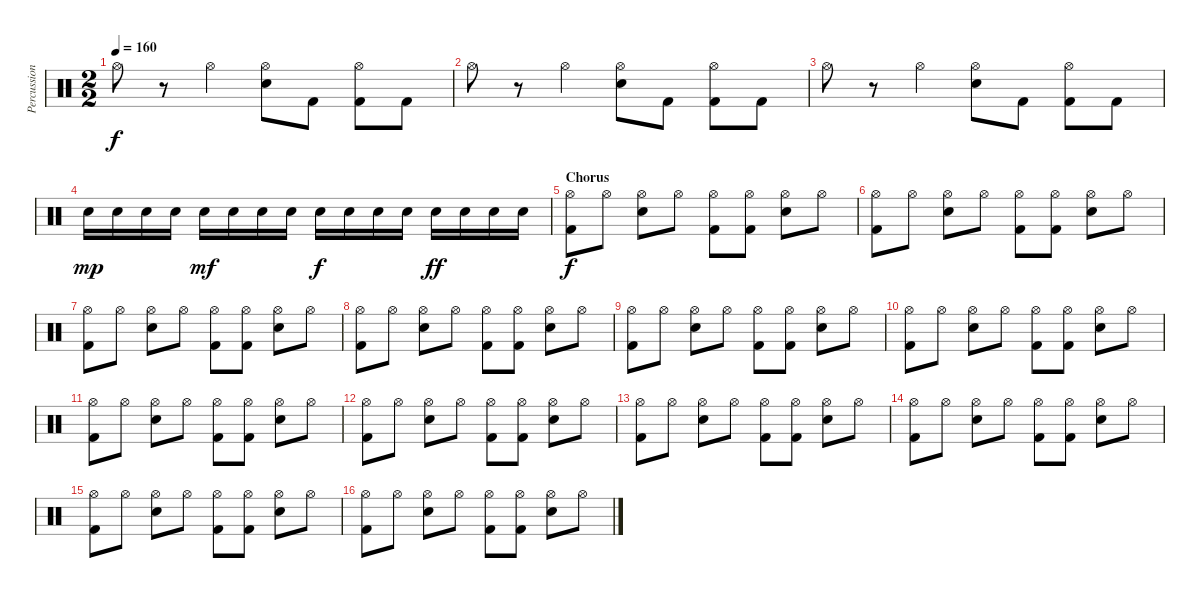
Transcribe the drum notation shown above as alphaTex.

\track ("Percussion" "Percussion") {instrument percussion}
\staff {score}
\articulation defaults
\ts (2 2)
\tempo 160
\clef neutral
\ks c "Hi-Hat (open)".8{dy f}
r.8 "Hi-Hat (open)".4 ("Hi-Hat (open)" "Snare (hit) 2").8 "Kick (hit) 2".8 ("Hi-Hat (open)" "Kick (hit) 2").8 "Kick (hit) 2".8 |
"Hi-Hat (open)".8 r.8 "Hi-Hat (open)".4 ("Hi-Hat (open)" "Snare (hit) 2").8 "Kick (hit) 2".8 ("Hi-Hat (open)" "Kick (hit) 2").8 "Kick (hit) 2".8 |
"Hi-Hat (open)".8 r.8 "Hi-Hat (open)".4 ("Hi-Hat (open)" "Snare (hit) 2").8 "Kick (hit) 2".8 ("Hi-Hat (open)" "Kick (hit) 2").8 "Kick (hit) 2".8 |
"Snare (hit) 2".16{dy mp} "Snare (hit) 2".16 "Snare (hit) 2".16 "Snare (hit) 2".16 "Snare (hit) 2".16{dy mf} "Snare (hit) 2".16 "Snare (hit) 2".16 "Snare (hit) 2".16 "Snare (hit) 2".16{dy f} "Snare (hit) 2".16 "Snare (hit) 2".16 "Snare (hit) 2".16 "Snare (hit) 2".16{dy ff} "Snare (hit) 2".16 "Snare (hit) 2".16 "Snare (hit) 2".16 |
\section ("" "Chorus")
("Hi-Hat (open)" "Kick (hit) 2").8{dy f} "Hi-Hat (open)".8 ("Hi-Hat (open)" "Snare (hit) 2").8 "Hi-Hat (open)".8 ("Hi-Hat (open)" "Kick (hit) 2").8 ("Hi-Hat (open)" "Kick (hit) 2").8 ("Hi-Hat (open)" "Snare (hit) 2").8 "Hi-Hat (open)".8 |
("Hi-Hat (open)" "Kick (hit) 2").8 "Hi-Hat (open)".8 ("Hi-Hat (open)" "Snare (hit) 2").8 "Hi-Hat (open)".8 ("Hi-Hat (open)" "Kick (hit) 2").8 ("Hi-Hat (open)" "Kick (hit) 2").8 ("Hi-Hat (open)" "Snare (hit) 2").8 "Hi-Hat (open)".8 |
("Hi-Hat (open)" "Kick (hit) 2").8 "Hi-Hat (open)".8 ("Hi-Hat (open)" "Snare (hit) 2").8 "Hi-Hat (open)".8 ("Hi-Hat (open)" "Kick (hit) 2").8 ("Hi-Hat (open)" "Kick (hit) 2").8 ("Hi-Hat (open)" "Snare (hit) 2").8 "Hi-Hat (open)".8 |
("Hi-Hat (open)" "Kick (hit) 2").8 "Hi-Hat (open)".8 ("Hi-Hat (open)" "Snare (hit) 2").8 "Hi-Hat (open)".8 ("Hi-Hat (open)" "Kick (hit) 2").8 ("Hi-Hat (open)" "Kick (hit) 2").8 ("Hi-Hat (open)" "Snare (hit) 2").8 "Hi-Hat (open)".8 |
("Hi-Hat (open)" "Kick (hit) 2").8 "Hi-Hat (open)".8 ("Hi-Hat (open)" "Snare (hit) 2").8 "Hi-Hat (open)".8 ("Hi-Hat (open)" "Kick (hit) 2").8 ("Hi-Hat (open)" "Kick (hit) 2").8 ("Hi-Hat (open)" "Snare (hit) 2").8 "Hi-Hat (open)".8 |
("Hi-Hat (open)" "Kick (hit) 2").8 "Hi-Hat (open)".8 ("Hi-Hat (open)" "Snare (hit) 2").8 "Hi-Hat (open)".8 ("Hi-Hat (open)" "Kick (hit) 2").8 ("Hi-Hat (open)" "Kick (hit) 2").8 ("Hi-Hat (open)" "Snare (hit) 2").8 "Hi-Hat (open)".8 |
("Hi-Hat (open)" "Kick (hit) 2").8 "Hi-Hat (open)".8 ("Hi-Hat (open)" "Snare (hit) 2").8 "Hi-Hat (open)".8 ("Hi-Hat (open)" "Kick (hit) 2").8 ("Hi-Hat (open)" "Kick (hit) 2").8 ("Hi-Hat (open)" "Snare (hit) 2").8 "Hi-Hat (open)".8 |
("Hi-Hat (open)" "Kick (hit) 2").8 "Hi-Hat (open)".8 ("Hi-Hat (open)" "Snare (hit) 2").8 "Hi-Hat (open)".8 ("Hi-Hat (open)" "Kick (hit) 2").8 ("Hi-Hat (open)" "Kick (hit) 2").8 ("Hi-Hat (open)" "Snare (hit) 2").8 "Hi-Hat (open)".8 |
("Hi-Hat (open)" "Kick (hit) 2").8 "Hi-Hat (open)".8 ("Hi-Hat (open)" "Snare (hit) 2").8 "Hi-Hat (open)".8 ("Hi-Hat (open)" "Kick (hit) 2").8 ("Hi-Hat (open)" "Kick (hit) 2").8 ("Hi-Hat (open)" "Snare (hit) 2").8 "Hi-Hat (open)".8 |
("Hi-Hat (open)" "Kick (hit) 2").8 "Hi-Hat (open)".8 ("Hi-Hat (open)" "Snare (hit) 2").8 "Hi-Hat (open)".8 ("Hi-Hat (open)" "Kick (hit) 2").8 ("Hi-Hat (open)" "Kick (hit) 2").8 ("Hi-Hat (open)" "Snare (hit) 2").8 "Hi-Hat (open)".8 |
("Hi-Hat (open)" "Kick (hit) 2").8 "Hi-Hat (open)".8 ("Hi-Hat (open)" "Snare (hit) 2").8 "Hi-Hat (open)".8 ("Hi-Hat (open)" "Kick (hit) 2").8 ("Hi-Hat (open)" "Kick (hit) 2").8 ("Hi-Hat (open)" "Snare (hit) 2").8 "Hi-Hat (open)".8 |
("Hi-Hat (open)" "Kick (hit) 2").8 "Hi-Hat (open)".8 ("Hi-Hat (open)" "Snare (hit) 2").8 "Hi-Hat (open)".8 ("Hi-Hat (open)" "Kick (hit) 2").8 ("Hi-Hat (open)" "Kick (hit) 2").8 ("Hi-Hat (open)" "Snare (hit) 2").8 "Hi-Hat (open)".8
